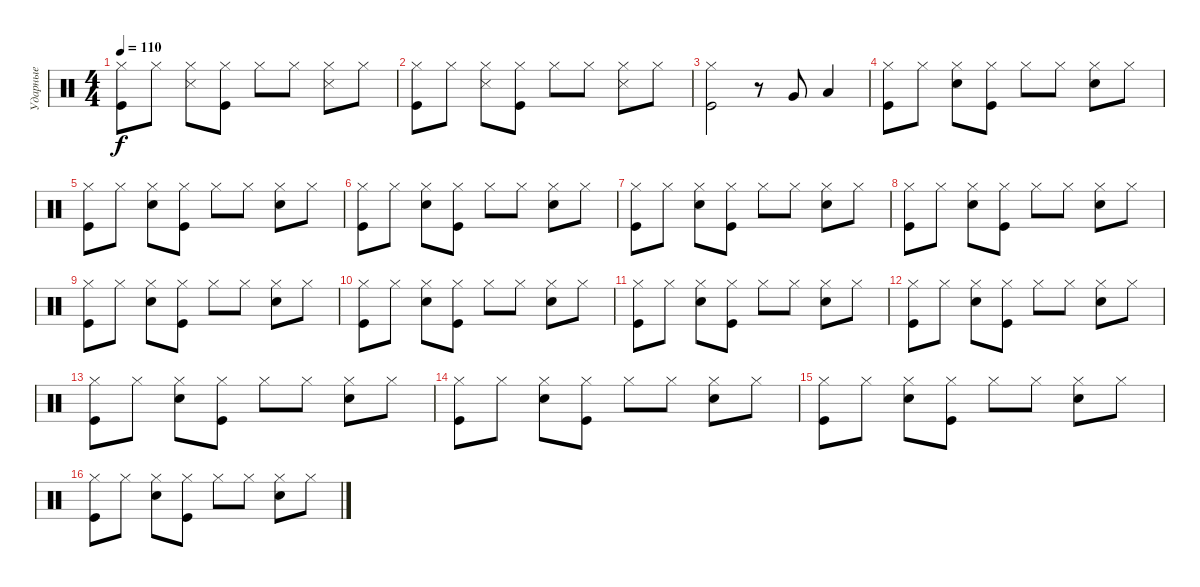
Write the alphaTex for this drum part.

\track ("Ударные" "Ударные") {instrument percussion}
\staff {score}
\articulation defaults
\ts (4 4)
\tempo 110
\clef neutral
\ks c
("Hi-Hat (closed)" "Kick (hit)").8{dy f} "Hi-Hat (closed)".8 ("Hi-Hat (closed)" "Snare (side stick) 3").8 ("Hi-Hat (closed)" "Kick (hit)").8 "Hi-Hat (closed)".8 "Hi-Hat (closed)".8 ("Hi-Hat (closed)" "Snare (side stick) 3").8 "Hi-Hat (closed)".8 |
("Hi-Hat (closed)" "Kick (hit)").8 "Hi-Hat (closed)".8 ("Hi-Hat (closed)" "Snare (side stick) 3").8 ("Hi-Hat (closed)" "Kick (hit)").8 "Hi-Hat (closed)".8 "Hi-Hat (closed)".8 ("Hi-Hat (closed)" "Snare (side stick) 3").8 "Hi-Hat (closed)".8 |
("Hi-Hat (closed)" "Kick (hit)").2 r.8 "Very Low Tom (hit)".8 "Low Floor Tom (hit)".4 |
("Hi-Hat (closed)" "Kick (hit)").8 "Hi-Hat (closed)".8 ("Hi-Hat (closed)" "Snare (hit) 2").8 ("Hi-Hat (closed)" "Kick (hit)").8 "Hi-Hat (closed)".8 "Hi-Hat (closed)".8 ("Hi-Hat (closed)" "Snare (hit) 2").8 "Hi-Hat (closed)".8 |
("Hi-Hat (closed)" "Kick (hit)").8 "Hi-Hat (closed)".8 ("Hi-Hat (closed)" "Snare (hit) 2").8 ("Hi-Hat (closed)" "Kick (hit)").8 "Hi-Hat (closed)".8 "Hi-Hat (closed)".8 ("Hi-Hat (closed)" "Snare (hit) 2").8 "Hi-Hat (closed)".8 |
("Hi-Hat (closed)" "Kick (hit)").8 "Hi-Hat (closed)".8 ("Hi-Hat (closed)" "Snare (hit) 2").8 ("Hi-Hat (closed)" "Kick (hit)").8 "Hi-Hat (closed)".8 "Hi-Hat (closed)".8 ("Hi-Hat (closed)" "Snare (hit) 2").8 "Hi-Hat (closed)".8 |
("Hi-Hat (closed)" "Kick (hit)").8 "Hi-Hat (closed)".8 ("Hi-Hat (closed)" "Snare (hit) 2").8 ("Hi-Hat (closed)" "Kick (hit)").8 "Hi-Hat (closed)".8 "Hi-Hat (closed)".8 ("Hi-Hat (closed)" "Snare (hit) 2").8 "Hi-Hat (closed)".8 |
("Hi-Hat (closed)" "Kick (hit)").8 "Hi-Hat (closed)".8 ("Hi-Hat (closed)" "Snare (hit) 2").8 ("Hi-Hat (closed)" "Kick (hit)").8 "Hi-Hat (closed)".8 "Hi-Hat (closed)".8 ("Hi-Hat (closed)" "Snare (hit) 2").8 "Hi-Hat (closed)".8 |
("Hi-Hat (closed)" "Kick (hit)").8 "Hi-Hat (closed)".8 ("Hi-Hat (closed)" "Snare (hit) 2").8 ("Hi-Hat (closed)" "Kick (hit)").8 "Hi-Hat (closed)".8 "Hi-Hat (closed)".8 ("Hi-Hat (closed)" "Snare (hit) 2").8 "Hi-Hat (closed)".8 |
("Hi-Hat (closed)" "Kick (hit)").8 "Hi-Hat (closed)".8 ("Hi-Hat (closed)" "Snare (hit) 2").8 ("Hi-Hat (closed)" "Kick (hit)").8 "Hi-Hat (closed)".8 "Hi-Hat (closed)".8 ("Hi-Hat (closed)" "Snare (hit) 2").8 "Hi-Hat (closed)".8 |
("Hi-Hat (closed)" "Kick (hit)").8 "Hi-Hat (closed)".8 ("Hi-Hat (closed)" "Snare (hit) 2").8 ("Hi-Hat (closed)" "Kick (hit)").8 "Hi-Hat (closed)".8 "Hi-Hat (closed)".8 ("Hi-Hat (closed)" "Snare (hit) 2").8 "Hi-Hat (closed)".8 |
("Hi-Hat (closed)" "Kick (hit)").8 "Hi-Hat (closed)".8 ("Hi-Hat (closed)" "Snare (hit) 2").8 ("Hi-Hat (closed)" "Kick (hit)").8 "Hi-Hat (closed)".8 "Hi-Hat (closed)".8 ("Hi-Hat (closed)" "Snare (hit) 2").8 "Hi-Hat (closed)".8 |
("Hi-Hat (closed)" "Kick (hit)").8 "Hi-Hat (closed)".8 ("Hi-Hat (closed)" "Snare (hit) 2").8 ("Hi-Hat (closed)" "Kick (hit)").8 "Hi-Hat (closed)".8 "Hi-Hat (closed)".8 ("Hi-Hat (closed)" "Snare (hit) 2").8 "Hi-Hat (closed)".8 |
("Hi-Hat (closed)" "Kick (hit)").8 "Hi-Hat (closed)".8 ("Hi-Hat (closed)" "Snare (hit) 2").8 ("Hi-Hat (closed)" "Kick (hit)").8 "Hi-Hat (closed)".8 "Hi-Hat (closed)".8 ("Hi-Hat (closed)" "Snare (hit) 2").8 "Hi-Hat (closed)".8 |
("Hi-Hat (closed)" "Kick (hit)").8 "Hi-Hat (closed)".8 ("Hi-Hat (closed)" "Snare (hit) 2").8 ("Hi-Hat (closed)" "Kick (hit)").8 "Hi-Hat (closed)".8 "Hi-Hat (closed)".8 ("Hi-Hat (closed)" "Snare (hit) 2").8 "Hi-Hat (closed)".8 |
("Hi-Hat (closed)" "Kick (hit)").8 "Hi-Hat (closed)".8 ("Hi-Hat (closed)" "Snare (hit) 2").8 ("Hi-Hat (closed)" "Kick (hit)").8 "Hi-Hat (closed)".8 "Hi-Hat (closed)".8 ("Hi-Hat (closed)" "Snare (hit) 2").8 "Hi-Hat (closed)".8
